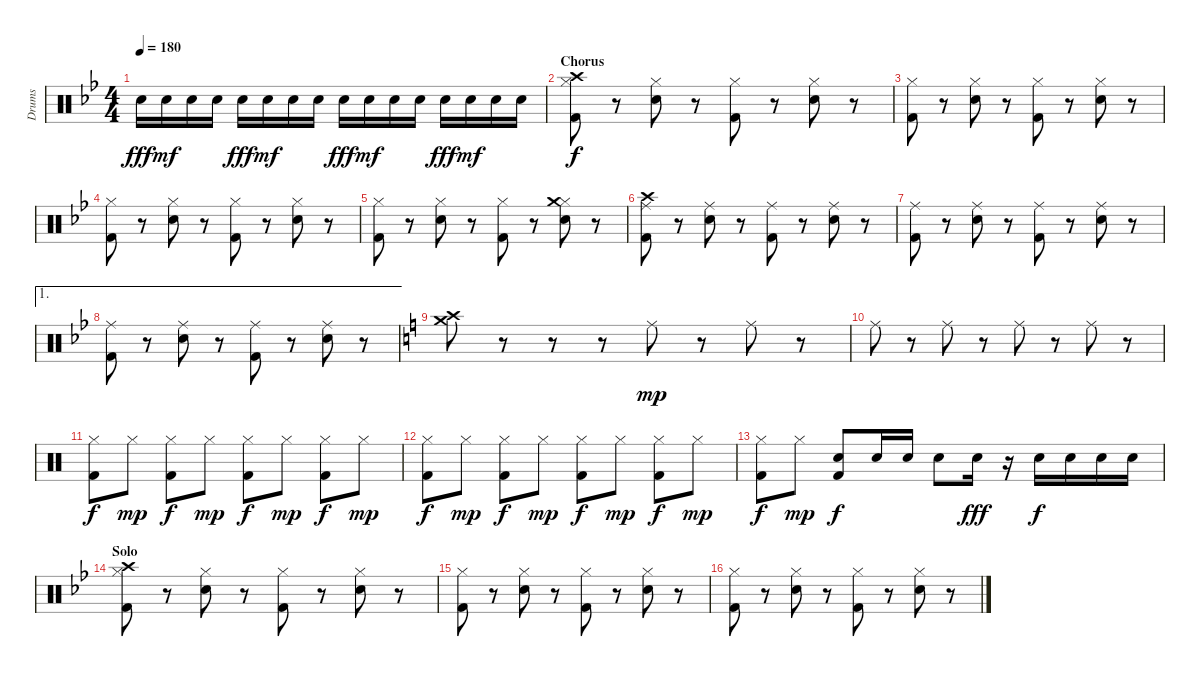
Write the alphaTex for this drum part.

\track ("Drums" "Drums") {instrument percussion}
\staff {score}
\articulation defaults
\ts (4 4)
\tempo 180
\clef neutral
\ks bb "Electric Snare (hit)".16{dy fff} "Electric Snare (hit)".16{dy mf} "Electric Snare (hit)".16 "Electric Snare (hit)".16 "Electric Snare (hit)".16{dy fff} "Electric Snare (hit)".16{dy mf} "Electric Snare (hit)".16 "Electric Snare (hit)".16 "Electric Snare (hit)".16{dy fff} "Electric Snare (hit)".16{dy mf} "Electric Snare (hit)".16 "Electric Snare (hit)".16 "Electric Snare (hit)".16{dy fff} "Electric Snare (hit)".16{dy mf} "Electric Snare (hit)".16 "Electric Snare (hit)".16
|
\section ("" "Chorus")
("Hi-Hat (closed)" "Kick (hit) 2" "Crash high (hit)").8{dy f} r.8 ("Hi-Hat (closed)" "Electric Snare (hit)").8 r.8 ("Hi-Hat (closed)" "Kick (hit) 2").8 r.8 ("Hi-Hat (closed)" "Electric Snare (hit)").8 r.8 |
("Hi-Hat (closed)" "Kick (hit) 2").8 r.8 ("Hi-Hat (closed)" "Electric Snare (hit)").8 r.8 ("Hi-Hat (closed)" "Kick (hit) 2").8 r.8 ("Hi-Hat (closed)" "Electric Snare (hit)").8 r.8 |
("Hi-Hat (closed)" "Kick (hit) 2").8 r.8 ("Hi-Hat (closed)" "Electric Snare (hit)").8 r.8 ("Hi-Hat (closed)" "Kick (hit) 2").8 r.8 ("Hi-Hat (closed)" "Electric Snare (hit)").8 r.8 |
("Hi-Hat (closed)" "Kick (hit) 2").8 r.8 ("Hi-Hat (closed)" "Electric Snare (hit)").8 r.8 ("Hi-Hat (closed)" "Kick (hit) 2").8 r.8 ("Hi-Hat (closed)" "Electric Snare (hit)" "Crash medium (hit)").8 r.8 |
("Ride (middle)" "Kick (hit) 2" "Crash high (hit)").8 r.8 ("Ride (middle)" "Electric Snare (hit)").8 r.8 ("Ride (middle)" "Kick (hit) 2").8 r.8 ("Ride (middle)" "Electric Snare (hit)").8 r.8 |
("Ride (middle)" "Kick (hit) 2").8 r.8 ("Ride (middle)" "Electric Snare (hit)").8 r.8 ("Ride (middle)" "Kick (hit) 2").8 r.8 ("Ride (middle)" "Electric Snare (hit)").8 r.8 |
\ae 1
("Ride (middle)" "Kick (hit) 2").8 r.8 ("Ride (middle)" "Electric Snare (hit)").8 r.8 ("Ride (middle)" "Kick (hit) 2").8 r.8 ("Ride (middle)" "Electric Snare (hit)").8 r.8 |
\ks c
("Crash high (hit)" "Crash medium (hit)").8 r.8 r.8 r.8 "Ride (middle)".8{dy mp} r.8 "Ride (middle)".8 r.8 |
"Ride (middle)".8 r.8 "Ride (middle)".8 r.8 "Ride (middle)".8 r.8 "Ride (middle)".8 r.8 |
("Hi-Hat (closed)" "Kick (hit) 2").8{dy f} "Hi-Hat (closed)".8{dy mp} ("Hi-Hat (closed)" "Kick (hit) 2").8{dy f} "Hi-Hat (closed)".8{dy mp} ("Hi-Hat (closed)" "Kick (hit) 2").8{dy f} "Hi-Hat (closed)".8{dy mp} ("Hi-Hat (closed)" "Kick (hit) 2").8{dy f} "Hi-Hat (closed)".8{dy mp} |
("Hi-Hat (closed)" "Kick (hit) 2").8{dy f} "Hi-Hat (closed)".8{dy mp} ("Hi-Hat (closed)" "Kick (hit) 2").8{dy f} "Hi-Hat (closed)".8{dy mp} ("Hi-Hat (closed)" "Kick (hit) 2").8{dy f} "Hi-Hat (closed)".8{dy mp} ("Hi-Hat (closed)" "Kick (hit) 2").8{dy f} "Hi-Hat (closed)".8{dy mp} |
("Hi-Hat (closed)" "Kick (hit) 2").8{dy f} "Hi-Hat (closed)".8{dy mp} ("Snare (hit)" "Kick (hit) 2").8{dy f} "Electric Snare (hit)".16 "Electric Snare (hit)".16 "Electric Snare (hit)".8 "Electric Snare (hit)".16{dy fff} r.16 "Electric Snare (hit)".16{dy f} "Electric Snare (hit)".16 "Electric Snare (hit)".16 "Electric Snare (hit)".16 |
\section ("" "Solo")
\ks bb
("Hi-Hat (closed)" "Kick (hit) 2" "Crash high (hit)").8 r.8 ("Hi-Hat (closed)" "Electric Snare (hit)").8 r.8 ("Hi-Hat (closed)" "Kick (hit) 2").8 r.8 ("Hi-Hat (closed)" "Electric Snare (hit)").8 r.8 |
("Hi-Hat (closed)" "Kick (hit) 2").8 r.8 ("Hi-Hat (closed)" "Electric Snare (hit)").8 r.8 ("Hi-Hat (closed)" "Kick (hit) 2").8 r.8 ("Hi-Hat (closed)" "Electric Snare (hit)").8 r.8 |
("Hi-Hat (closed)" "Kick (hit) 2").8 r.8 ("Hi-Hat (closed)" "Electric Snare (hit)").8 r.8 ("Hi-Hat (closed)" "Kick (hit) 2").8 r.8 ("Hi-Hat (closed)" "Electric Snare (hit)").8 r.8
